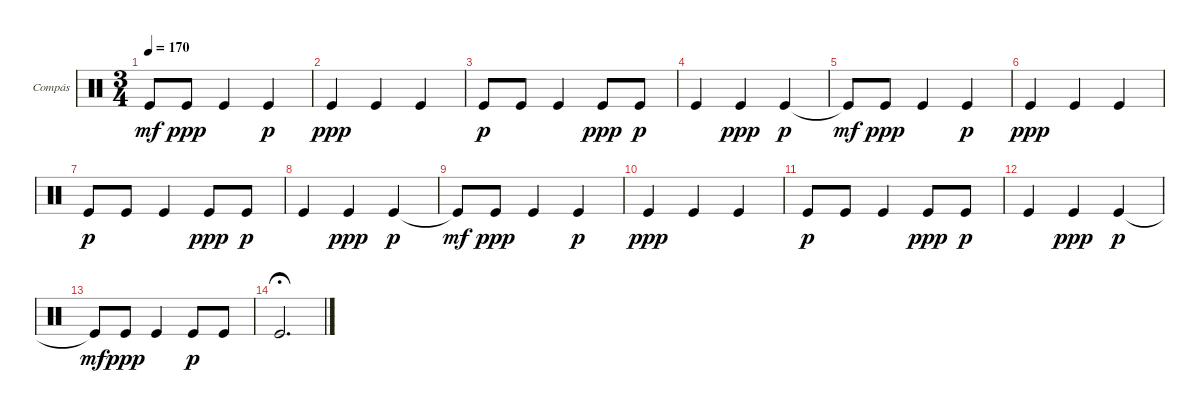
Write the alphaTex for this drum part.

\defaultSystemsLayout 4
\bracketExtendMode groupsimilarinstruments
\firstSystemTrackNameOrientation horizontal
\otherSystemsTrackNameOrientation horizontal
\track ("Compás" "Compás") {instrument percussion}
\staff {score}
\articulation defaults
\ts (3 4)
\tempo 170
\clef neutral
\ks c "Kick (hit)"{t}.8{dy mf} "Kick (hit)".8{dy ppp} "Kick (hit)".4 "Kick (hit)".4{dy p}
|
"Kick (hit)".4{dy ppp} "Kick (hit)".4 "Kick (hit)".4 |
"Kick (hit)".8{dy p} "Kick (hit)".8 "Kick (hit)".4 "Kick (hit)".8{dy ppp} "Kick (hit)".8{dy p} |
"Kick (hit)".4 "Kick (hit)".4{dy ppp} "Kick (hit)".4{dy p} |
"Kick (hit)"{t}.8{dy mf} "Kick (hit)".8{dy ppp} "Kick (hit)".4 "Kick (hit)".4{dy p} |
"Kick (hit)".4{dy ppp} "Kick (hit)".4 "Kick (hit)".4 |
"Kick (hit)".8{dy p} "Kick (hit)".8 "Kick (hit)".4 "Kick (hit)".8{dy ppp} "Kick (hit)".8{dy p} |
"Kick (hit)".4 "Kick (hit)".4{dy ppp} "Kick (hit)".4{dy p} |
"Kick (hit)"{t}.8{dy mf} "Kick (hit)".8{dy ppp} "Kick (hit)".4 "Kick (hit)".4{dy p} |
"Kick (hit)".4{dy ppp} "Kick (hit)".4 "Kick (hit)".4 |
"Kick (hit)".8{dy p} "Kick (hit)".8 "Kick (hit)".4 "Kick (hit)".8{dy ppp} "Kick (hit)".8{dy p} |
"Kick (hit)".4 "Kick (hit)".4{dy ppp} "Kick (hit)".4{dy p} |
"Kick (hit)"{t}.8{dy mf} "Kick (hit)".8{dy ppp} "Kick (hit)".4 "Kick (hit)".8{dy p} "Kick (hit)".8 |
"Kick (hit)".2{d fermata (medium 1)}
